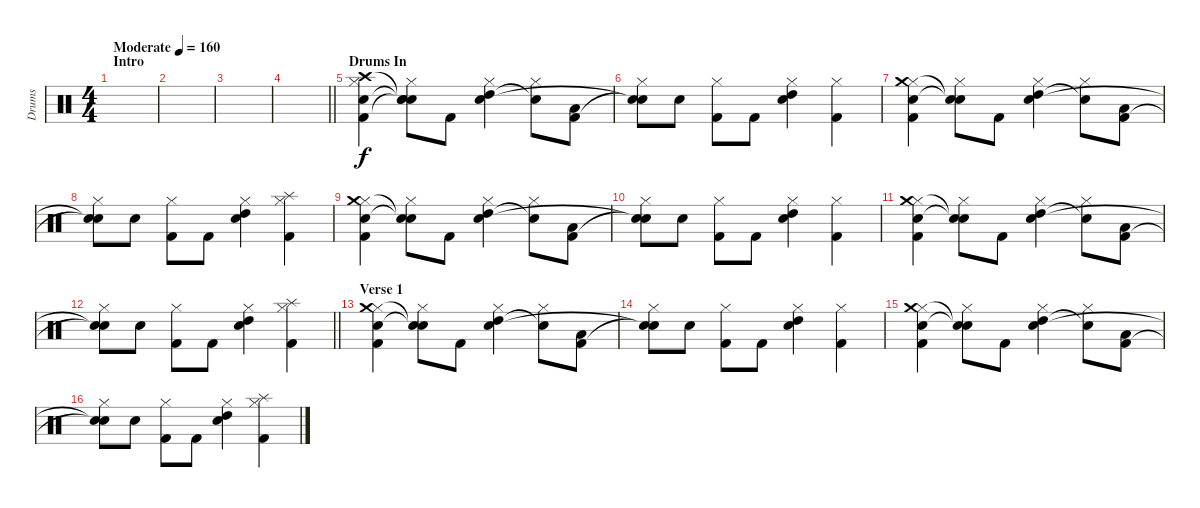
\track ("Drums" "Drums") {instrument percussion}
\staff {score}
\articulation defaults
\ts (4 4)
\section ("" "Intro")
\tempo (160 "Moderate")
\clef neutral
\ks c
|
|
|
\barLineRight lightlight
|
\section ("" "Drums In")
("Hi-Hat (closed)" "Crash high (hit)" "Snare (hit) 2" "Kick (hit) 2").4 ("Hi-Hat (closed)" "Snare (hit)"{t} "Snare (hit)"{t} "Snare (hit)"{t}).8 "Kick (hit) 2".8 ("Hi-Hat (closed)" "High Tom (hit)" "Snare (hit) 2").4 ("Hi-Hat (closed)" "Snare (hit)"{t}).8 ("Low Floor Tom (hit)" "Kick (hit) 2").8 |
("Hi-Hat (closed)" "Snare (hit)"{t} "Snare (hit)"{t}).8 "Snare (hit) 2".8 ("Hi-Hat (closed)" "Kick (hit) 2").8 "Kick (hit) 2".8 ("Hi-Hat (closed)" "High Tom (hit)" "Snare (hit) 2").4 ("Hi-Hat (closed)" "Kick (hit) 2").4 |
("Hi-Hat (closed)" "Crash medium (hit)" "Snare (hit) 2" "Kick (hit) 2").4 ("Hi-Hat (closed)" "Snare (hit)"{t} "Snare (hit)"{t}).8 "Kick (hit) 2".8 ("Hi-Hat (closed)" "High Tom (hit)" "Snare (hit) 2").4 ("Hi-Hat (closed)" "Snare (hit)"{t}).8 ("Low Floor Tom (hit)" "Kick (hit) 2").8 |
("Hi-Hat (closed)" "Snare (hit)"{t} "Snare (hit)"{t}).8 "Snare (hit) 2".8 ("Hi-Hat (closed)" "Kick (hit) 2").8 "Kick (hit) 2".8 ("Hi-Hat (closed)" "High Tom (hit)" "Snare (hit) 2").4 ("Hi-Hat (closed)" "Splash (hit)" "Kick (hit) 2").4 |
("Hi-Hat (closed)" "Crash medium (hit)" "Snare (hit) 2" "Kick (hit) 2").4 ("Hi-Hat (closed)" "Snare (hit)"{t} "Snare (hit)"{t}).8 "Kick (hit) 2".8 ("Hi-Hat (closed)" "High Tom (hit)" "Snare (hit) 2").4 ("Hi-Hat (closed)" "Snare (hit)"{t}).8 ("Low Floor Tom (hit)" "Kick (hit) 2").8 |
("Hi-Hat (closed)" "Snare (hit)"{t} "Snare (hit)"{t}).8 "Snare (hit) 2".8 ("Hi-Hat (closed)" "Kick (hit) 2").8 "Kick (hit) 2".8 ("Hi-Hat (closed)" "High Tom (hit)" "Snare (hit) 2").4 ("Hi-Hat (closed)" "Kick (hit) 2").4 |
("Hi-Hat (closed)" "Crash medium (hit)" "Snare (hit) 2" "Kick (hit) 2").4 ("Hi-Hat (closed)" "Snare (hit)"{t} "Snare (hit)"{t}).8 "Kick (hit) 2".8 ("Hi-Hat (closed)" "High Tom (hit)" "Snare (hit) 2").4 ("Hi-Hat (closed)" "Snare (hit)"{t}).8 ("Low Floor Tom (hit)" "Kick (hit) 2").8 |
\barLineRight lightlight
("Hi-Hat (closed)" "Snare (hit)"{t} "Snare (hit)"{t}).8 "Snare (hit) 2".8 ("Hi-Hat (closed)" "Kick (hit) 2").8 "Kick (hit) 2".8 ("Hi-Hat (closed)" "High Tom (hit)" "Snare (hit) 2").4 ("Hi-Hat (closed)" "Splash (hit)" "Kick (hit) 2").4 |
\section ("" "Verse 1")
("Hi-Hat (closed)" "Crash medium (hit)" "Snare (hit) 2" "Kick (hit) 2").4 ("Hi-Hat (closed)" "Snare (hit)"{t} "Snare (hit)"{t}).8 "Kick (hit) 2".8 ("Hi-Hat (closed)" "High Tom (hit)" "Snare (hit) 2").4 ("Hi-Hat (closed)" "Snare (hit)"{t}).8 ("Low Floor Tom (hit)" "Kick (hit) 2").8 |
("Hi-Hat (closed)" "Snare (hit)"{t} "Snare (hit)"{t}).8 "Snare (hit) 2".8 ("Hi-Hat (closed)" "Kick (hit) 2").8 "Kick (hit) 2".8 ("Hi-Hat (closed)" "High Tom (hit)" "Snare (hit) 2").4 ("Hi-Hat (closed)" "Kick (hit) 2").4 |
("Hi-Hat (closed)" "Crash medium (hit)" "Snare (hit) 2" "Kick (hit) 2").4 ("Hi-Hat (closed)" "Snare (hit)"{t} "Snare (hit)"{t}).8 "Kick (hit) 2".8 ("Hi-Hat (closed)" "High Tom (hit)" "Snare (hit) 2").4 ("Hi-Hat (closed)" "Snare (hit)"{t}).8 ("Low Floor Tom (hit)" "Kick (hit) 2").8 |
("Hi-Hat (closed)" "Snare (hit)"{t} "Snare (hit)"{t}).8 "Snare (hit) 2".8 ("Hi-Hat (closed)" "Kick (hit) 2").8 "Kick (hit) 2".8 ("Hi-Hat (closed)" "High Tom (hit)" "Snare (hit) 2").4 ("Hi-Hat (closed)" "Splash (hit)" "Kick (hit) 2").4
